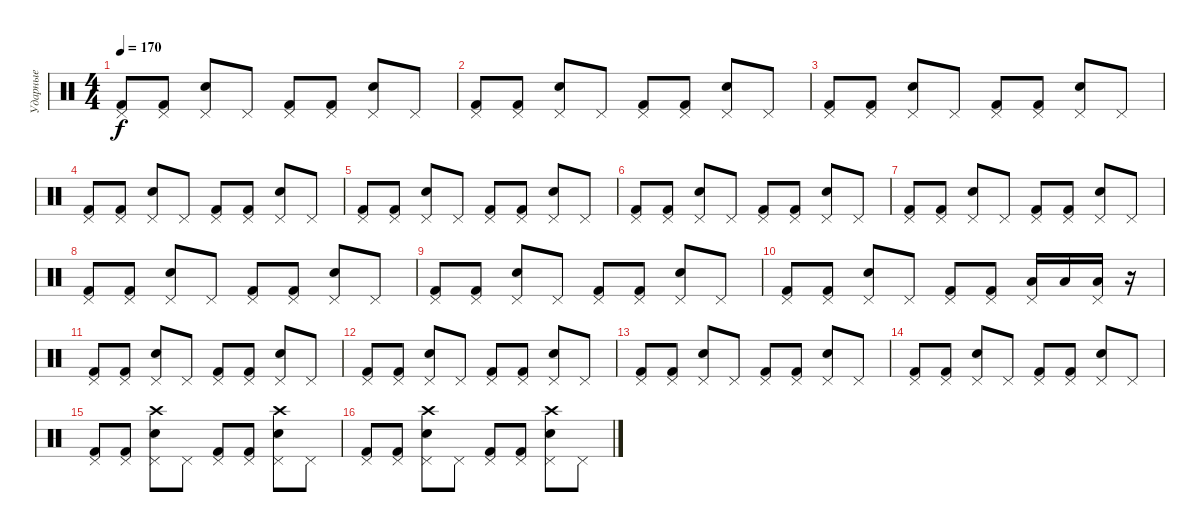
\track ("Ударные" "Ударные") {instrument percussion}
\staff {score}
\articulation defaults
\ts (4 4)
\tempo 170
\clef neutral
\ks c
("Pedal Hi-Hat (hit)" "Kick (hit) 2").8{dy f} ("Pedal Hi-Hat (hit)" "Kick (hit) 2").8 ("Pedal Hi-Hat (hit)" "Electric Snare (hit)").8 "Pedal Hi-Hat (hit)".8 ("Kick (hit) 2" "Pedal Hi-Hat (hit)").8 ("Pedal Hi-Hat (hit)" "Kick (hit) 2").8 ("Pedal Hi-Hat (hit)" "Electric Snare (hit)").8 "Pedal Hi-Hat (hit)".8 |
("Pedal Hi-Hat (hit)" "Kick (hit) 2").8 ("Kick (hit) 2" "Pedal Hi-Hat (hit)").8 ("Electric Snare (hit)" "Pedal Hi-Hat (hit)").8 "Pedal Hi-Hat (hit)".8 ("Kick (hit) 2" "Pedal Hi-Hat (hit)").8 ("Kick (hit) 2" "Pedal Hi-Hat (hit)").8 ("Electric Snare (hit)" "Pedal Hi-Hat (hit)").8 "Pedal Hi-Hat (hit)".8 |
("Kick (hit) 2" "Pedal Hi-Hat (hit)").8 ("Pedal Hi-Hat (hit)" "Kick (hit) 2").8 ("Pedal Hi-Hat (hit)" "Electric Snare (hit)").8 "Pedal Hi-Hat (hit)".8 ("Kick (hit) 2" "Pedal Hi-Hat (hit)").8 ("Kick (hit) 2" "Pedal Hi-Hat (hit)").8 ("Pedal Hi-Hat (hit)" "Electric Snare (hit)").8 "Pedal Hi-Hat (hit)".8 |
("Kick (hit) 2" "Pedal Hi-Hat (hit)").8 ("Pedal Hi-Hat (hit)" "Kick (hit) 2").8 ("Electric Snare (hit)" "Pedal Hi-Hat (hit)").8 "Pedal Hi-Hat (hit)".8 ("Pedal Hi-Hat (hit)" "Kick (hit) 2").8 ("Kick (hit) 2" "Pedal Hi-Hat (hit)").8 ("Pedal Hi-Hat (hit)" "Electric Snare (hit)").8 "Pedal Hi-Hat (hit)".8 |
("Pedal Hi-Hat (hit)" "Kick (hit) 2").8 ("Pedal Hi-Hat (hit)" "Kick (hit) 2").8 ("Pedal Hi-Hat (hit)" "Electric Snare (hit)").8 "Pedal Hi-Hat (hit)".8 ("Pedal Hi-Hat (hit)" "Kick (hit) 2").8 ("Kick (hit) 2" "Pedal Hi-Hat (hit)").8 ("Pedal Hi-Hat (hit)" "Electric Snare (hit)").8 "Pedal Hi-Hat (hit)".8 |
("Pedal Hi-Hat (hit)" "Kick (hit) 2").8 ("Kick (hit) 2" "Pedal Hi-Hat (hit)").8 ("Pedal Hi-Hat (hit)" "Electric Snare (hit)").8 "Pedal Hi-Hat (hit)".8 ("Kick (hit) 2" "Pedal Hi-Hat (hit)").8 ("Pedal Hi-Hat (hit)" "Kick (hit) 2").8 ("Pedal Hi-Hat (hit)" "Electric Snare (hit)").8 "Pedal Hi-Hat (hit)".8 |
("Kick (hit) 2" "Pedal Hi-Hat (hit)").8 ("Pedal Hi-Hat (hit)" "Kick (hit) 2").8 ("Pedal Hi-Hat (hit)" "Electric Snare (hit)").8 "Pedal Hi-Hat (hit)".8 ("Kick (hit) 2" "Pedal Hi-Hat (hit)").8 ("Kick (hit) 2" "Pedal Hi-Hat (hit)").8 ("Pedal Hi-Hat (hit)" "Electric Snare (hit)").8 "Pedal Hi-Hat (hit)".8 |
("Kick (hit) 2" "Pedal Hi-Hat (hit)").8 ("Pedal Hi-Hat (hit)" "Kick (hit) 2").8 ("Pedal Hi-Hat (hit)" "Electric Snare (hit)").8 "Pedal Hi-Hat (hit)".8 ("Pedal Hi-Hat (hit)" "Kick (hit) 2").8 ("Kick (hit) 2" "Pedal Hi-Hat (hit)").8 ("Electric Snare (hit)" "Pedal Hi-Hat (hit)").8 "Pedal Hi-Hat (hit)".8 |
("Kick (hit) 2" "Pedal Hi-Hat (hit)").8 ("Pedal Hi-Hat (hit)" "Kick (hit) 2").8 ("Electric Snare (hit)" "Pedal Hi-Hat (hit)").8 "Pedal Hi-Hat (hit)".8 ("Kick (hit) 2" "Pedal Hi-Hat (hit)").8 ("Pedal Hi-Hat (hit)" "Kick (hit) 2").8 ("Electric Snare (hit)" "Pedal Hi-Hat (hit)").8 "Pedal Hi-Hat (hit)".8 |
("Kick (hit) 2" "Pedal Hi-Hat (hit)").8 ("Kick (hit) 2" "Pedal Hi-Hat (hit)").8 ("Pedal Hi-Hat (hit)" "Electric Snare (hit)").8 "Pedal Hi-Hat (hit)".8 ("Kick (hit) 2" "Pedal Hi-Hat (hit)").8 ("Pedal Hi-Hat (hit)" "Kick (hit) 2").8 ("Pedal Hi-Hat (hit)" "Low Tom (hit)").16 "Low Tom (hit)".16 ("Pedal Hi-Hat (hit)" "Low Tom (hit)").16 r.16 |
("Pedal Hi-Hat (hit)" "Kick (hit) 2").8 ("Kick (hit) 2" "Pedal Hi-Hat (hit)").8 ("Electric Snare (hit)" "Pedal Hi-Hat (hit)").8 "Pedal Hi-Hat (hit)".8 ("Kick (hit) 2" "Pedal Hi-Hat (hit)").8 ("Pedal Hi-Hat (hit)" "Kick (hit) 2").8 ("Electric Snare (hit)" "Pedal Hi-Hat (hit)").8 "Pedal Hi-Hat (hit)".8 |
("Kick (hit) 2" "Pedal Hi-Hat (hit)").8 ("Pedal Hi-Hat (hit)" "Kick (hit) 2").8 ("Pedal Hi-Hat (hit)" "Electric Snare (hit)").8 "Pedal Hi-Hat (hit)".8 ("Kick (hit) 2" "Pedal Hi-Hat (hit)").8 ("Kick (hit) 2" "Pedal Hi-Hat (hit)").8 ("Pedal Hi-Hat (hit)" "Electric Snare (hit)").8 "Pedal Hi-Hat (hit)".8 |
("Kick (hit) 2" "Pedal Hi-Hat (hit)").8 ("Kick (hit) 2" "Pedal Hi-Hat (hit)").8 ("Electric Snare (hit)" "Pedal Hi-Hat (hit)").8 "Pedal Hi-Hat (hit)".8 ("Pedal Hi-Hat (hit)" "Kick (hit) 2").8 ("Kick (hit) 2" "Pedal Hi-Hat (hit)").8 ("Pedal Hi-Hat (hit)" "Electric Snare (hit)").8 "Pedal Hi-Hat (hit)".8 |
("Kick (hit) 2" "Pedal Hi-Hat (hit)").8 ("Kick (hit) 2" "Pedal Hi-Hat (hit)").8 ("Pedal Hi-Hat (hit)" "Electric Snare (hit)").8 "Pedal Hi-Hat (hit)".8 ("Kick (hit) 2" "Pedal Hi-Hat (hit)").8 ("Pedal Hi-Hat (hit)" "Kick (hit) 2").8 ("Electric Snare (hit)" "Pedal Hi-Hat (hit)").8 "Pedal Hi-Hat (hit)".8 |
("Kick (hit) 2" "Pedal Hi-Hat (hit)").8 ("Pedal Hi-Hat (hit)" "Kick (hit) 2").8 ("Pedal Hi-Hat (hit)" "Electric Snare (hit)" "Crash high (hit)").8 "Pedal Hi-Hat (hit)".8 ("Pedal Hi-Hat (hit)" "Kick (hit) 2").8 ("Kick (hit) 2" "Pedal Hi-Hat (hit)").8 ("Electric Snare (hit)" "Crash high (hit)" "Pedal Hi-Hat (hit)").8 "Pedal Hi-Hat (hit)".8 |
("Pedal Hi-Hat (hit)" "Kick (hit) 2").8 ("Kick (hit) 2" "Pedal Hi-Hat (hit)").8 ("Electric Snare (hit)" "Pedal Hi-Hat (hit)" "Crash high (hit)").8 "Pedal Hi-Hat (hit)".8 ("Pedal Hi-Hat (hit)" "Kick (hit) 2").8 ("Kick (hit) 2" "Pedal Hi-Hat (hit)").8 ("Electric Snare (hit)" "Crash high (hit)" "Pedal Hi-Hat (hit)").8 "Pedal Hi-Hat (hit)".8
